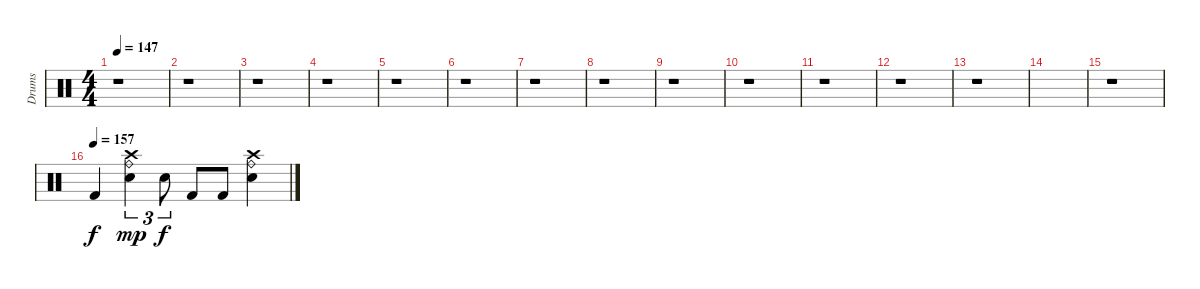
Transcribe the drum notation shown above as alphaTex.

\track ("Drums" "Drums") {instrument percussion}
\staff {score}
\articulation defaults
\ts (4 4)
\tempo 147
\clef neutral
\ks c
r.1{dy f} |
r.1 |
r.1 |
r.1 |
r.1 |
r.1 |
r.1 |
r.1 |
r.1 |
r.1 |
r.1 |
r.1 |
r.1 |
|
r.1 |
\tempo (157)
"Kick (hit) 2".4 ("Crash high (hit)" "Electric Snare (hit)" "Ride (bell)").4{tu (3 2) dy mp} "Electric Snare (hit)".8{tu (3 2) dy f} "Kick (hit) 2".8 "Kick (hit) 2".8 ("Ride (bell)" "Crash high (hit)" "Electric Snare (hit)").4
